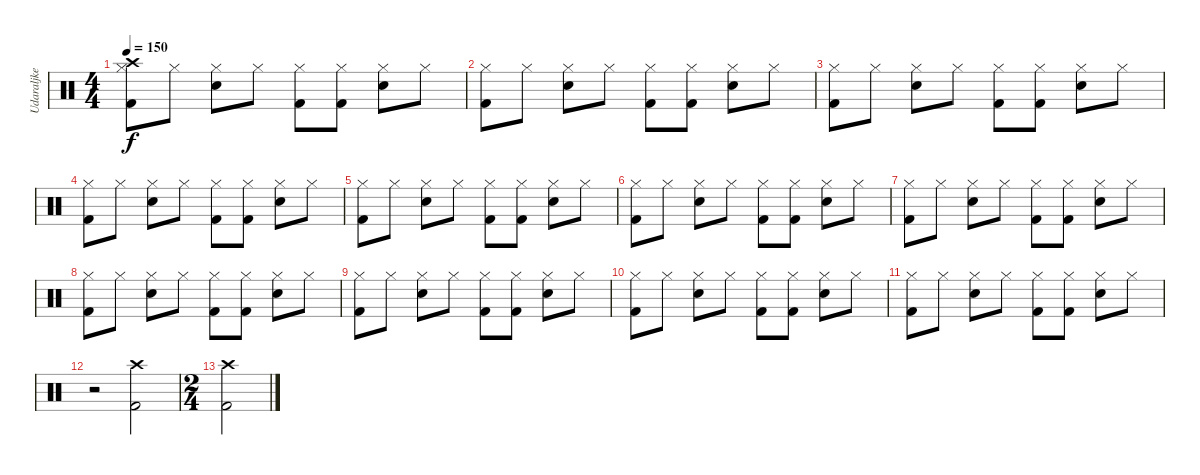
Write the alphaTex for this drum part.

\track ("Udaraljke" "Udaraljke") {instrument percussion}
\staff {score}
\articulation defaults
\ts (4 4)
\tempo 150
\clef neutral
\ks c
("Crash high (hit)" "Kick (hit) 2" "Hi-Hat (closed)").8{dy f} "Hi-Hat (closed)".8 ("Snare (hit) 2" "Hi-Hat (closed)").8 "Hi-Hat (closed)".8 ("Kick (hit) 2" "Hi-Hat (closed)").8 ("Kick (hit) 2" "Hi-Hat (closed)").8 ("Snare (hit) 2" "Hi-Hat (closed)").8 "Hi-Hat (closed)".8 |
("Hi-Hat (closed)" "Kick (hit) 2").8 "Hi-Hat (closed)".8 ("Hi-Hat (closed)" "Snare (hit) 2").8 "Hi-Hat (closed)".8 ("Hi-Hat (closed)" "Kick (hit) 2").8 ("Hi-Hat (closed)" "Kick (hit) 2").8 ("Hi-Hat (closed)" "Snare (hit) 2").8 "Hi-Hat (closed)".8 |
("Hi-Hat (closed)" "Kick (hit) 2").8 "Hi-Hat (closed)".8 ("Hi-Hat (closed)" "Snare (hit) 2").8 "Hi-Hat (closed)".8 ("Hi-Hat (closed)" "Kick (hit) 2").8 ("Hi-Hat (closed)" "Kick (hit) 2").8 ("Hi-Hat (closed)" "Snare (hit) 2").8 "Hi-Hat (closed)".8 |
("Hi-Hat (closed)" "Kick (hit) 2").8 "Hi-Hat (closed)".8 ("Hi-Hat (closed)" "Snare (hit) 2").8 "Hi-Hat (closed)".8 ("Hi-Hat (closed)" "Kick (hit) 2").8 ("Hi-Hat (closed)" "Kick (hit) 2").8 ("Hi-Hat (closed)" "Snare (hit) 2").8 "Hi-Hat (closed)".8 |
("Hi-Hat (closed)" "Kick (hit) 2").8 "Hi-Hat (closed)".8 ("Hi-Hat (closed)" "Snare (hit) 2").8 "Hi-Hat (closed)".8 ("Hi-Hat (closed)" "Kick (hit) 2").8 ("Hi-Hat (closed)" "Kick (hit) 2").8 ("Hi-Hat (closed)" "Snare (hit) 2").8 "Hi-Hat (closed)".8 |
("Hi-Hat (closed)" "Kick (hit) 2").8 "Hi-Hat (closed)".8 ("Hi-Hat (closed)" "Snare (hit) 2").8 "Hi-Hat (closed)".8 ("Hi-Hat (closed)" "Kick (hit) 2").8 ("Hi-Hat (closed)" "Kick (hit) 2").8 ("Hi-Hat (closed)" "Snare (hit) 2").8 "Hi-Hat (closed)".8 |
("Hi-Hat (closed)" "Kick (hit) 2").8 "Hi-Hat (closed)".8 ("Hi-Hat (closed)" "Snare (hit) 2").8 "Hi-Hat (closed)".8 ("Hi-Hat (closed)" "Kick (hit) 2").8 ("Hi-Hat (closed)" "Kick (hit) 2").8 ("Hi-Hat (closed)" "Snare (hit) 2").8 "Hi-Hat (closed)".8 |
("Hi-Hat (closed)" "Kick (hit) 2").8 "Hi-Hat (closed)".8 ("Hi-Hat (closed)" "Snare (hit) 2").8 "Hi-Hat (closed)".8 ("Hi-Hat (closed)" "Kick (hit) 2").8 ("Hi-Hat (closed)" "Kick (hit) 2").8 ("Hi-Hat (closed)" "Snare (hit) 2").8 "Hi-Hat (closed)".8 |
("Hi-Hat (closed)" "Kick (hit) 2").8 "Hi-Hat (closed)".8 ("Hi-Hat (closed)" "Snare (hit) 2").8 "Hi-Hat (closed)".8 ("Hi-Hat (closed)" "Kick (hit) 2").8 ("Hi-Hat (closed)" "Kick (hit) 2").8 ("Hi-Hat (closed)" "Snare (hit) 2").8 "Hi-Hat (closed)".8 |
("Hi-Hat (closed)" "Kick (hit) 2").8 "Hi-Hat (closed)".8 ("Hi-Hat (closed)" "Snare (hit) 2").8 "Hi-Hat (closed)".8 ("Hi-Hat (closed)" "Kick (hit) 2").8 ("Hi-Hat (closed)" "Kick (hit) 2").8 ("Hi-Hat (closed)" "Snare (hit) 2").8 "Hi-Hat (closed)".8 |
("Hi-Hat (closed)" "Kick (hit) 2").8 "Hi-Hat (closed)".8 ("Hi-Hat (closed)" "Snare (hit) 2").8 "Hi-Hat (closed)".8 ("Hi-Hat (closed)" "Kick (hit) 2").8 ("Hi-Hat (closed)" "Kick (hit) 2").8 ("Hi-Hat (closed)" "Snare (hit) 2").8 "Hi-Hat (closed)".8 |
r.2 ("Kick (hit) 2" "Crash high (hit)").2 |
\ts (2 4)
("Crash high (hit)" "Kick (hit) 2").2
